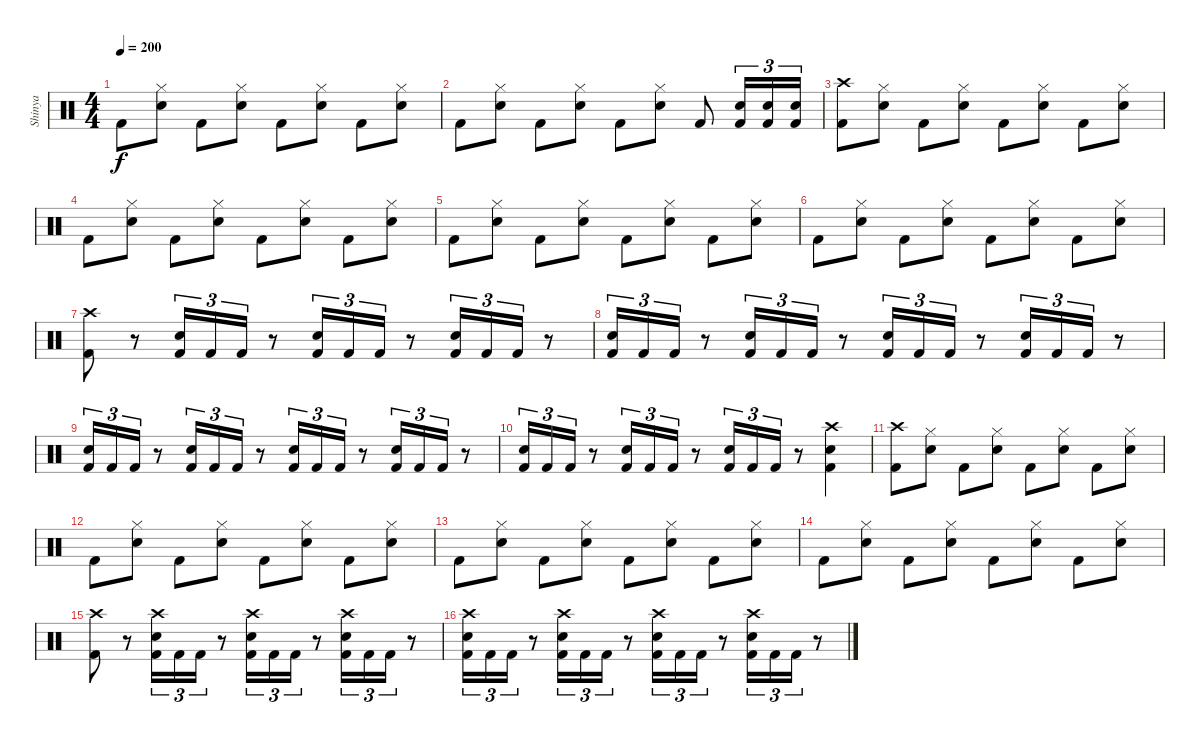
\track ("Shinya" "Shinya") {instrument percussion}
\staff {score}
\articulation defaults
\ts (4 4)
\tempo 200
\clef neutral
\ks c "Kick (hit) 2".8{dy f}
("Hi-Hat (closed)" "Electric Snare (hit)").8 "Kick (hit) 2".8 ("Hi-Hat (closed)" "Electric Snare (hit)").8 "Kick (hit) 2".8 ("Hi-Hat (closed)" "Electric Snare (hit)").8 "Kick (hit) 2".8 ("Hi-Hat (closed)" "Electric Snare (hit)").8 |
"Kick (hit) 2".8 ("Hi-Hat (closed)" "Electric Snare (hit)").8 "Kick (hit) 2".8 ("Hi-Hat (closed)" "Electric Snare (hit)").8 "Kick (hit) 2".8 ("Hi-Hat (closed)" "Electric Snare (hit)").8 "Kick (hit) 2".8 ("Electric Snare (hit)" "Kick (hit) 2").16{tu (3 2)} ("Electric Snare (hit)" "Kick (hit) 2").16{tu (3 2)} ("Electric Snare (hit)" "Kick (hit) 2").16{tu (3 2)} |
("Crash high (hit)" "Kick (hit) 2").8 ("Hi-Hat (closed)" "Electric Snare (hit)").8 "Kick (hit) 2".8 ("Hi-Hat (closed)" "Electric Snare (hit)").8 "Kick (hit) 2".8 ("Hi-Hat (closed)" "Electric Snare (hit)").8 "Kick (hit) 2".8 ("Hi-Hat (closed)" "Electric Snare (hit)").8 |
"Kick (hit) 2".8 ("Hi-Hat (closed)" "Electric Snare (hit)").8 "Kick (hit) 2".8 ("Hi-Hat (closed)" "Electric Snare (hit)").8 "Kick (hit) 2".8 ("Hi-Hat (closed)" "Electric Snare (hit)").8 "Kick (hit) 2".8 ("Hi-Hat (closed)" "Electric Snare (hit)").8 |
"Kick (hit) 2".8 ("Hi-Hat (closed)" "Electric Snare (hit)").8 "Kick (hit) 2".8 ("Hi-Hat (closed)" "Electric Snare (hit)").8 "Kick (hit) 2".8 ("Hi-Hat (closed)" "Electric Snare (hit)").8 "Kick (hit) 2".8 ("Hi-Hat (closed)" "Electric Snare (hit)").8 |
"Kick (hit) 2".8 ("Hi-Hat (closed)" "Electric Snare (hit)").8 "Kick (hit) 2".8 ("Hi-Hat (closed)" "Electric Snare (hit)").8 "Kick (hit) 2".8 ("Hi-Hat (closed)" "Electric Snare (hit)").8 "Kick (hit) 2".8 ("Hi-Hat (closed)" "Electric Snare (hit)").8 |
("Crash high (hit)" "Kick (hit) 2").8 r.8 ("Electric Snare (hit)" "Kick (hit) 2").16{tu (3 2)} "Kick (hit) 2".16{tu (3 2)} "Kick (hit) 2".16{tu (3 2)} r.8 ("Electric Snare (hit)" "Kick (hit) 2").16{tu (3 2)} "Kick (hit) 2".16{tu (3 2)} "Kick (hit) 2".16{tu (3 2)} r.8 ("Electric Snare (hit)" "Kick (hit) 2").16{tu (3 2)} "Kick (hit) 2".16{tu (3 2)} "Kick (hit) 2".16{tu (3 2)} r.8 |
("Electric Snare (hit)" "Kick (hit) 2").16{tu (3 2)} "Kick (hit) 2".16{tu (3 2)} "Kick (hit) 2".16{tu (3 2)} r.8 ("Electric Snare (hit)" "Kick (hit) 2").16{tu (3 2)} "Kick (hit) 2".16{tu (3 2)} "Kick (hit) 2".16{tu (3 2)} r.8 ("Electric Snare (hit)" "Kick (hit) 2").16{tu (3 2)} "Kick (hit) 2".16{tu (3 2)} "Kick (hit) 2".16{tu (3 2)} r.8 ("Electric Snare (hit)" "Kick (hit) 2").16{tu (3 2)} "Kick (hit) 2".16{tu (3 2)} "Kick (hit) 2".16{tu (3 2)} r.8 |
("Electric Snare (hit)" "Kick (hit) 2").16{tu (3 2)} "Kick (hit) 2".16{tu (3 2)} "Kick (hit) 2".16{tu (3 2)} r.8 ("Electric Snare (hit)" "Kick (hit) 2").16{tu (3 2)} "Kick (hit) 2".16{tu (3 2)} "Kick (hit) 2".16{tu (3 2)} r.8 ("Electric Snare (hit)" "Kick (hit) 2").16{tu (3 2)} "Kick (hit) 2".16{tu (3 2)} "Kick (hit) 2".16{tu (3 2)} r.8 ("Electric Snare (hit)" "Kick (hit) 2").16{tu (3 2)} "Kick (hit) 2".16{tu (3 2)} "Kick (hit) 2".16{tu (3 2)} r.8 |
("Electric Snare (hit)" "Kick (hit) 2").16{tu (3 2)} "Kick (hit) 2".16{tu (3 2)} "Kick (hit) 2".16{tu (3 2)} r.8 ("Electric Snare (hit)" "Kick (hit) 2").16{tu (3 2)} "Kick (hit) 2".16{tu (3 2)} "Kick (hit) 2".16{tu (3 2)} r.8 ("Electric Snare (hit)" "Kick (hit) 2").16{tu (3 2)} "Kick (hit) 2".16{tu (3 2)} "Kick (hit) 2".16{tu (3 2)} r.8 ("Crash high (hit)" "Electric Snare (hit)" "Kick (hit) 2").4 |
("Crash high (hit)" "Kick (hit) 2").8 ("Hi-Hat (closed)" "Electric Snare (hit)").8 "Kick (hit) 2".8 ("Hi-Hat (closed)" "Electric Snare (hit)").8 "Kick (hit) 2".8 ("Hi-Hat (closed)" "Electric Snare (hit)").8 "Kick (hit) 2".8 ("Hi-Hat (closed)" "Electric Snare (hit)").8 |
"Kick (hit) 2".8 ("Hi-Hat (closed)" "Electric Snare (hit)").8 "Kick (hit) 2".8 ("Hi-Hat (closed)" "Electric Snare (hit)").8 "Kick (hit) 2".8 ("Hi-Hat (closed)" "Electric Snare (hit)").8 "Kick (hit) 2".8 ("Hi-Hat (closed)" "Electric Snare (hit)").8 |
"Kick (hit) 2".8 ("Hi-Hat (closed)" "Electric Snare (hit)").8 "Kick (hit) 2".8 ("Hi-Hat (closed)" "Electric Snare (hit)").8 "Kick (hit) 2".8 ("Hi-Hat (closed)" "Electric Snare (hit)").8 "Kick (hit) 2".8 ("Hi-Hat (closed)" "Electric Snare (hit)").8 |
"Kick (hit) 2".8 ("Hi-Hat (closed)" "Electric Snare (hit)").8 "Kick (hit) 2".8 ("Hi-Hat (closed)" "Electric Snare (hit)").8 "Kick (hit) 2".8 ("Hi-Hat (closed)" "Electric Snare (hit)").8 "Kick (hit) 2".8 ("Hi-Hat (closed)" "Electric Snare (hit)").8 |
("Crash high (hit)" "Kick (hit) 2").8 r.8 ("Crash high (hit)" "Electric Snare (hit)" "Kick (hit) 2").16{tu (3 2)} "Kick (hit) 2".16{tu (3 2)} "Kick (hit) 2".16{tu (3 2)} r.8 ("Crash high (hit)" "Electric Snare (hit)" "Kick (hit) 2").16{tu (3 2)} "Kick (hit) 2".16{tu (3 2)} "Kick (hit) 2".16{tu (3 2)} r.8 ("Crash high (hit)" "Electric Snare (hit)" "Kick (hit) 2").16{tu (3 2)} "Kick (hit) 2".16{tu (3 2)} "Kick (hit) 2".16{tu (3 2)} r.8 |
("Crash high (hit)" "Electric Snare (hit)" "Kick (hit) 2").16{tu (3 2)} "Kick (hit) 2".16{tu (3 2)} "Kick (hit) 2".16{tu (3 2)} r.8 ("Crash high (hit)" "Electric Snare (hit)" "Kick (hit) 2").16{tu (3 2)} "Kick (hit) 2".16{tu (3 2)} "Kick (hit) 2".16{tu (3 2)} r.8 ("Crash high (hit)" "Electric Snare (hit)" "Kick (hit) 2").16{tu (3 2)} "Kick (hit) 2".16{tu (3 2)} "Kick (hit) 2".16{tu (3 2)} r.8 ("Crash high (hit)" "Electric Snare (hit)" "Kick (hit) 2").16{tu (3 2)} "Kick (hit) 2".16{tu (3 2)} "Kick (hit) 2".16{tu (3 2)} r.8
